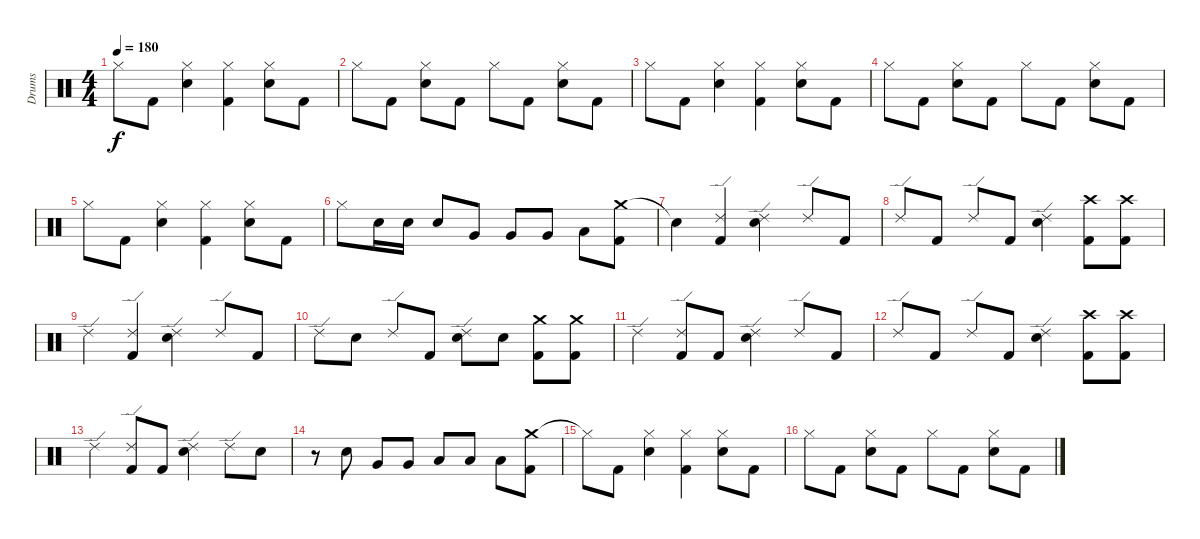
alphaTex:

\track ("Drums" "Drums") {instrument percussion}
\staff {score}
\articulation defaults
\ts (4 4)
\tempo 180
\clef neutral
\ks c "Hi-Hat (closed)".8{dy f} "Kick (hit) 2".8
("Hi-Hat (closed)" "Electric Snare (hit)").4 ("Hi-Hat (closed)" "Kick (hit) 2").4 ("Hi-Hat (closed)" "Electric Snare (hit)").8 "Kick (hit) 2".8 |
"Hi-Hat (closed)".8 "Kick (hit) 2".8 ("Hi-Hat (closed)" "Electric Snare (hit)").8 "Kick (hit) 2".8 "Hi-Hat (closed)".8 "Kick (hit) 2".8 ("Hi-Hat (closed)" "Electric Snare (hit)").8 "Kick (hit) 2".8 |
"Hi-Hat (closed)".8 "Kick (hit) 2".8 ("Hi-Hat (closed)" "Electric Snare (hit)").4 ("Hi-Hat (closed)" "Kick (hit) 2").4 ("Hi-Hat (closed)" "Electric Snare (hit)").8 "Kick (hit) 2".8 |
"Hi-Hat (closed)".8 "Kick (hit) 2".8 ("Hi-Hat (closed)" "Electric Snare (hit)").8 "Kick (hit) 2".8 "Hi-Hat (closed)".8 "Kick (hit) 2".8 ("Hi-Hat (closed)" "Electric Snare (hit)").8 "Kick (hit) 2".8 |
"Hi-Hat (closed)".8 "Kick (hit) 2".8 ("Hi-Hat (closed)" "Electric Snare (hit)").4 ("Hi-Hat (closed)" "Kick (hit) 2").4 ("Hi-Hat (closed)" "Electric Snare (hit)").8 "Kick (hit) 2".8 |
"Hi-Hat (closed)".8 "Electric Snare (hit)".16 "Electric Snare (hit)".16 "Electric Snare (hit)".8 "Very Low Tom (hit)".8 "Very Low Tom (hit)".8 "Very Low Tom (hit)".8 "Low Floor Tom (hit)".8 ("Crash medium (hit)" "Kick (hit) 2").8 |
"Snare (hit)"{t}.4 ("Ride (edge) 2" "Kick (hit) 2").4 ("Ride (edge) 2" "Electric Snare (hit)").4 "Ride (edge) 2".8 "Kick (hit) 2".8 |
"Ride (edge) 2".8 "Kick (hit) 2".8 "Ride (edge) 2".8 "Kick (hit) 2".8 ("Ride (edge) 2" "Electric Snare (hit)").4 ("Crash high (hit)" "Kick (hit) 2").8 ("Crash high (hit)" "Kick (hit) 2").8 |
"Ride (edge) 2".4 ("Ride (edge) 2" "Kick (hit) 2").4 ("Ride (edge) 2" "Electric Snare (hit)").4 "Ride (edge) 2".8 "Kick (hit) 2".8 |
"Ride (edge) 2".8 "Electric Snare (hit)".8 "Ride (edge) 2".8 "Kick (hit) 2".8 ("Ride (edge) 2" "Electric Snare (hit)").8 "Electric Snare (hit)".8 ("Crash medium (hit)" "Kick (hit) 2").8 ("Crash medium (hit)" "Kick (hit) 2").8 |
"Ride (edge) 2".4 ("Ride (edge) 2" "Kick (hit) 2").8 "Kick (hit) 2".8 ("Ride (edge) 2" "Electric Snare (hit)").4 "Ride (edge) 2".8 "Kick (hit) 2".8 |
"Ride (edge) 2".8 "Kick (hit) 2".8 "Ride (edge) 2".8 "Kick (hit) 2".8 ("Ride (edge) 2" "Electric Snare (hit)").4 ("Crash high (hit)" "Kick (hit) 2").8 ("Crash high (hit)" "Kick (hit) 2").8 |
"Ride (edge) 2".4 ("Ride (edge) 2" "Kick (hit) 2").8 "Kick (hit) 2".8 ("Ride (edge) 2" "Electric Snare (hit)").4 "Ride (edge) 2".8 "Electric Snare (hit)".8 |
r.8 "Electric Snare (hit)".8 "Very Low Tom (hit)".8 "Very Low Tom (hit)".8 "Low Floor Tom (hit)".8 "Low Floor Tom (hit)".8 "Low Floor Tom (hit)".8 ("Crash medium (hit)" "Kick (hit) 2").8 |
"Hi-Hat (closed)"{t}.8 "Kick (hit) 2".8 ("Hi-Hat (closed)" "Electric Snare (hit)").4 ("Hi-Hat (closed)" "Kick (hit) 2").4 ("Hi-Hat (closed)" "Electric Snare (hit)").8 "Kick (hit) 2".8 |
"Hi-Hat (closed)".8 "Kick (hit) 2".8 ("Hi-Hat (closed)" "Electric Snare (hit)").8 "Kick (hit) 2".8 "Hi-Hat (closed)".8 "Kick (hit) 2".8 ("Hi-Hat (closed)" "Electric Snare (hit)").8 "Kick (hit) 2".8
